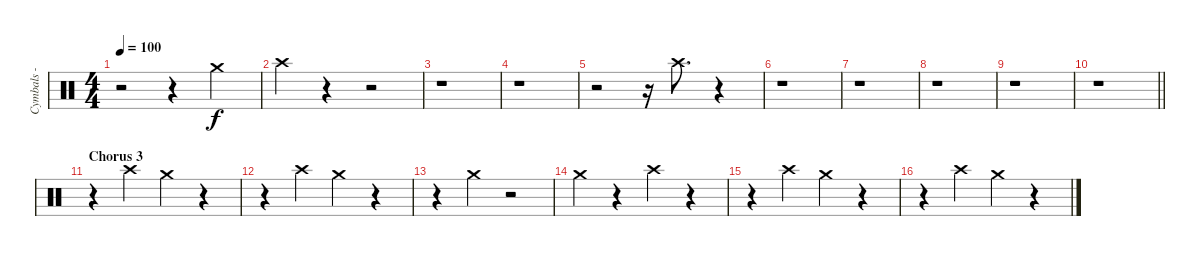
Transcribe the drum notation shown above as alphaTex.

\track ("Cymbals - crash - left" "Cymbals - ") {instrument percussion}
\staff {score}
\articulation defaults
\ts (4 4)
\tempo 100
\clef neutral
\ks c
r.2{dy f} r.4 "Crash medium (hit)".4 |
"Crash high (hit)".4 r.4 r.2 |
r.1 |
r.1 |
r.2 r.16 "Crash high (hit)".8{d} r.4 |
r.1 |
r.1 |
r.1 |
r.1 |
\barLineRight lightlight
r.1 |
\section ("" "Chorus 3")
r.4 "Crash high (hit)".4 "Crash medium (hit)".4 r.4 |
r.4 "Crash high (hit)".4 "Crash medium (hit)".4 r.4 |
r.4 "Crash medium (hit)".4 r.2 |
"Crash medium (hit)".4 r.4 "Crash high (hit)".4 r.4 |
r.4 "Crash high (hit)".4 "Crash medium (hit)".4 r.4 |
r.4 "Crash high (hit)".4 "Crash medium (hit)".4 r.4
